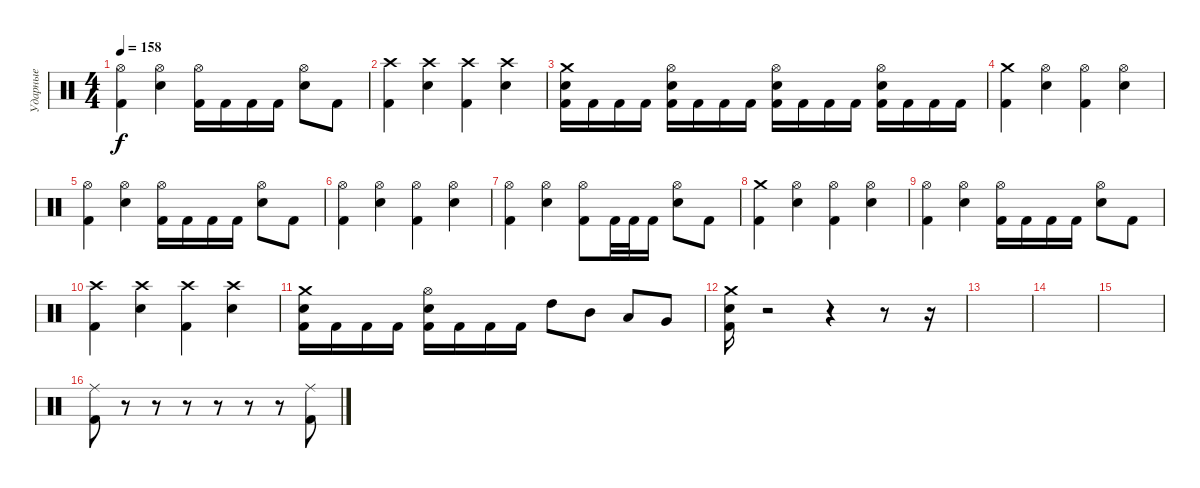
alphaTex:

\track ("Ударные" "Ударные") {instrument percussion}
\staff {score}
\articulation defaults
\ts (4 4)
\tempo 158
\clef neutral
\ks c
("Hi-Hat (open)" "Kick (hit) 2").4{dy f} ("Hi-Hat (open)" "Snare (hit) 2").4 ("Hi-Hat (open)" "Kick (hit) 2").16 "Kick (hit) 2".16 "Kick (hit) 2".16 "Kick (hit) 2".16 ("Hi-Hat (open)" "Snare (hit) 2").8 "Kick (hit) 2".8 |
("Crash high (hit)" "Kick (hit) 2").4 ("Crash high (hit)" "Snare (hit) 2").4 ("Crash high (hit)" "Kick (hit) 2").4 ("Crash high (hit)" "Snare (hit) 2").4 |
("Crash medium (hit)" "Snare (hit) 2" "Kick (hit) 2").16 "Kick (hit) 2".16 "Kick (hit) 2".16 "Kick (hit) 2".16 ("Hi-Hat (open)" "Snare (hit) 2" "Kick (hit) 2").16 "Kick (hit) 2".16 "Kick (hit) 2".16 "Kick (hit) 2".16 ("Hi-Hat (open)" "Snare (hit) 2" "Kick (hit) 2").16 "Kick (hit) 2".16 "Kick (hit) 2".16 "Kick (hit) 2".16 ("Hi-Hat (open)" "Snare (hit) 2" "Kick (hit) 2").16 "Kick (hit) 2".16 "Kick (hit) 2".16 "Kick (hit) 2".16 |
("Crash medium (hit)" "Kick (hit) 2").4 ("Hi-Hat (open)" "Snare (hit) 2").4 ("Hi-Hat (open)" "Kick (hit) 2").4 ("Hi-Hat (open)" "Snare (hit) 2").4 |
("Hi-Hat (open)" "Kick (hit) 2").4 ("Hi-Hat (open)" "Snare (hit) 2").4 ("Hi-Hat (open)" "Kick (hit) 2").16 "Kick (hit) 2".16 "Kick (hit) 2".16 "Kick (hit) 2".16 ("Hi-Hat (open)" "Snare (hit) 2").8 "Kick (hit) 2".8 |
("Hi-Hat (open)" "Kick (hit) 2").4 ("Hi-Hat (open)" "Snare (hit) 2").4 ("Hi-Hat (open)" "Kick (hit) 2").4 ("Hi-Hat (open)" "Snare (hit) 2").4 |
("Hi-Hat (open)" "Kick (hit) 2").4 ("Hi-Hat (open)" "Snare (hit) 2").4 ("Hi-Hat (open)" "Kick (hit) 2").8 "Kick (hit) 2".32 "Kick (hit) 2".32 "Kick (hit) 2".16 ("Hi-Hat (open)" "Snare (hit) 2").8 "Kick (hit) 2".8 |
("Crash medium (hit)" "Kick (hit) 2").4 ("Hi-Hat (open)" "Snare (hit) 2").4 ("Hi-Hat (open)" "Kick (hit) 2").4 ("Hi-Hat (open)" "Snare (hit) 2").4 |
("Hi-Hat (open)" "Kick (hit) 2").4 ("Hi-Hat (open)" "Snare (hit) 2").4 ("Hi-Hat (open)" "Kick (hit) 2").16 "Kick (hit) 2".16 "Kick (hit) 2".16 "Kick (hit) 2".16 ("Hi-Hat (open)" "Snare (hit) 2").8 "Kick (hit) 2".8 |
("Crash high (hit)" "Kick (hit) 2").4 ("Crash high (hit)" "Snare (hit) 2").4 ("Crash high (hit)" "Kick (hit) 2").4 ("Crash high (hit)" "Snare (hit) 2").4 |
("Crash medium (hit)" "Snare (hit) 2" "Kick (hit) 2").16 "Kick (hit) 2".16 "Kick (hit) 2".16 "Kick (hit) 2".16 ("Hi-Hat (open)" "Snare (hit) 2" "Kick (hit) 2").16 "Kick (hit) 2".16 "Kick (hit) 2".16 "Kick (hit) 2".16 "High Tom (hit)".8 "Mid Tom (hit)".8 "Low Tom (hit)".8 "Very Low Tom (hit)".8 |
("Crash medium (hit)" "Snare (hit) 2" "Kick (hit) 2").16 r.2 r.4 r.8 r.16 |
|
|
|
("Ride (middle)" "Kick (hit) 2").8 r.8 r.8 r.8 r.8 r.8 r.8 ("Ride (middle)" "Kick (hit) 2").8
